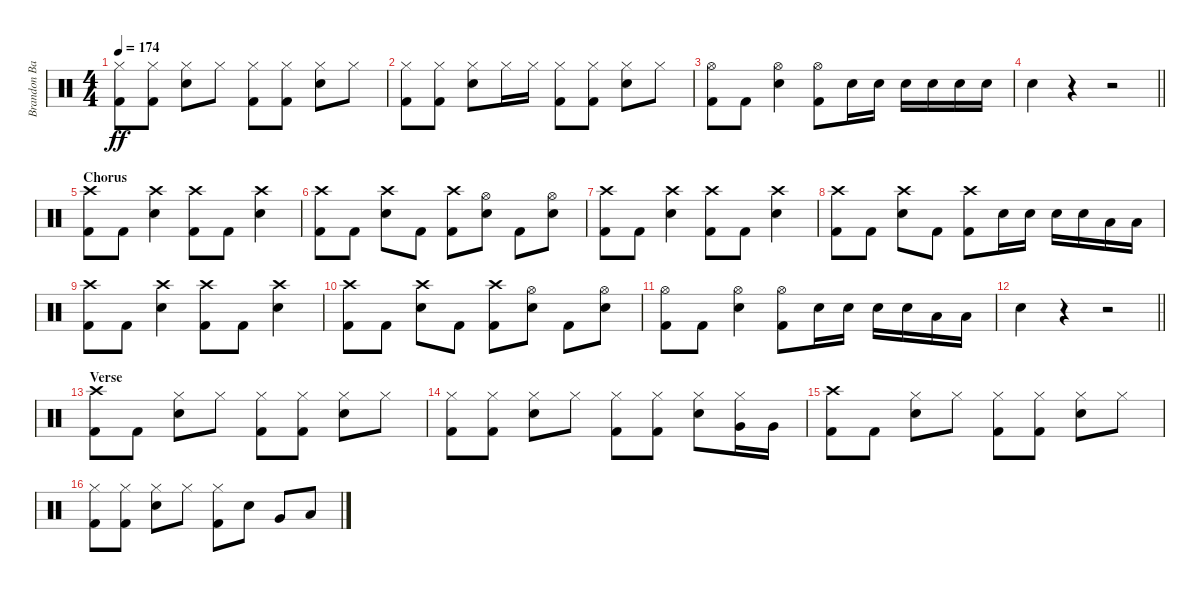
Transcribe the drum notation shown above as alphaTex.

\track ("Brandon Barnes - Drums" "Brandon Ba") {instrument percussion}
\staff {score}
\articulation defaults
\ts (4 4)
\tempo 174
\clef neutral
\ks c
("Hi-Hat (closed)" "Kick (hit) 2").8{dy ff} ("Hi-Hat (closed)" "Kick (hit) 2").8 ("Hi-Hat (closed)" "Snare (hit) 2").8 "Hi-Hat (closed)".8 ("Hi-Hat (closed)" "Kick (hit) 2").8 ("Hi-Hat (closed)" "Kick (hit) 2").8 ("Hi-Hat (closed)" "Snare (hit) 2").8 "Hi-Hat (closed)".8 |
("Hi-Hat (closed)" "Kick (hit) 2").8 ("Hi-Hat (closed)" "Kick (hit) 2").8 ("Hi-Hat (closed)" "Snare (hit) 2").8 "Hi-Hat (closed)".16 "Hi-Hat (closed)".16 ("Hi-Hat (closed)" "Kick (hit) 2").8 ("Hi-Hat (closed)" "Kick (hit) 2").8 ("Hi-Hat (closed)" "Snare (hit) 2").8 "Hi-Hat (closed)".8 |
("Kick (hit) 2" "Hi-Hat (open)").8 "Kick (hit) 2".8 ("Snare (hit) 2" "Hi-Hat (open)").4 ("Kick (hit) 2" "Hi-Hat (open)").8 "Snare (hit) 2".16 "Snare (hit) 2".16 "Snare (hit) 2".16 "Snare (hit) 2".16 "Snare (hit) 2".16 "Snare (hit) 2".16 |
\barLineRight lightlight "Snare (hit) 2".4
r.4 r.2 |
\section ("" "Chorus")
("Kick (hit) 2" "Crash high (hit)").8 "Kick (hit) 2".8 ("Snare (hit) 2" "Crash high (hit)").4 ("Kick (hit) 2" "Crash high (hit)").8 "Kick (hit) 2".8 ("Snare (hit) 2" "Crash high (hit)").4 |
("Kick (hit) 2" "Crash high (hit)").8 "Kick (hit) 2".8 ("Snare (hit) 2" "Crash high (hit)").8 "Kick (hit) 2".8 ("Kick (hit) 2" "Crash high (hit)").8 ("Snare (hit) 2" "Hi-Hat (open)").8 "Kick (hit) 2".8 ("Snare (hit) 2" "Hi-Hat (open)").8 |
("Kick (hit) 2" "Crash high (hit)").8 "Kick (hit) 2".8 ("Snare (hit) 2" "Crash high (hit)").4 ("Kick (hit) 2" "Crash high (hit)").8 "Kick (hit) 2".8 ("Snare (hit) 2" "Crash high (hit)").4 |
("Kick (hit) 2" "Crash high (hit)").8 "Kick (hit) 2".8 ("Snare (hit) 2" "Crash high (hit)").8 "Kick (hit) 2".8 ("Kick (hit) 2" "Crash high (hit)").8 "Snare (hit) 2".16 "Snare (hit) 2".16 "Snare (hit) 2".16 "Snare (hit) 2".16 "Low Tom (hit)".16 "Low Tom (hit)".16 |
("Kick (hit) 2" "Crash high (hit)").8 "Kick (hit) 2".8 ("Snare (hit) 2" "Crash high (hit)").4 ("Kick (hit) 2" "Crash high (hit)").8 "Kick (hit) 2".8 ("Snare (hit) 2" "Crash high (hit)").4 |
("Kick (hit) 2" "Crash high (hit)").8 "Kick (hit) 2".8 ("Snare (hit) 2" "Crash high (hit)").8 "Kick (hit) 2".8 ("Kick (hit) 2" "Crash high (hit)").8 ("Snare (hit) 2" "Hi-Hat (open)").8 "Kick (hit) 2".8 ("Snare (hit) 2" "Hi-Hat (open)").8 |
("Kick (hit) 2" "Hi-Hat (open)").8 "Kick (hit) 2".8 ("Snare (hit) 2" "Hi-Hat (open)").4 ("Kick (hit) 2" "Hi-Hat (open)").8 "Snare (hit) 2".16 "Snare (hit) 2".16 "Snare (hit) 2".16 "Snare (hit) 2".16 "Low Tom (hit)".16 "Low Tom (hit)".16 |
\barLineRight lightlight "Snare (hit) 2".4
r.4 r.2 |
\section ("" "Verse")
("Crash high (hit)" "Kick (hit) 2").8 "Kick (hit) 2".8 ("Snare (hit) 2" "Hi-Hat (closed)").8 "Hi-Hat (closed)".8 ("Kick (hit) 2" "Hi-Hat (closed)").8 ("Kick (hit) 2" "Hi-Hat (closed)").8 ("Snare (hit) 2" "Hi-Hat (closed)").8 "Hi-Hat (closed)".8 |
("Kick (hit) 2" "Hi-Hat (closed)").8 ("Kick (hit) 2" "Hi-Hat (closed)").8 ("Snare (hit) 2" "Hi-Hat (closed)").8 "Hi-Hat (closed)".8 ("Kick (hit) 2" "Hi-Hat (closed)").8 ("Kick (hit) 2" "Hi-Hat (closed)").8 ("Snare (hit) 2" "Hi-Hat (closed)").8 ("Very Low Tom (hit)" "Hi-Hat (closed)").16 "Very Low Tom (hit)".16 |
("Crash high (hit)" "Kick (hit) 2").8 "Kick (hit) 2".8 ("Snare (hit) 2" "Hi-Hat (closed)").8 "Hi-Hat (closed)".8 ("Kick (hit) 2" "Hi-Hat (closed)").8 ("Kick (hit) 2" "Hi-Hat (closed)").8 ("Snare (hit) 2" "Hi-Hat (closed)").8 "Hi-Hat (closed)".8 |
("Kick (hit) 2" "Hi-Hat (closed)").8 ("Kick (hit) 2" "Hi-Hat (closed)").8 ("Snare (hit) 2" "Hi-Hat (closed)").8 "Hi-Hat (closed)".8 ("Kick (hit) 2" "Hi-Hat (closed)").8 "Snare (hit) 2".8 "Very Low Tom (hit)".8 "Low Tom (hit)".8
